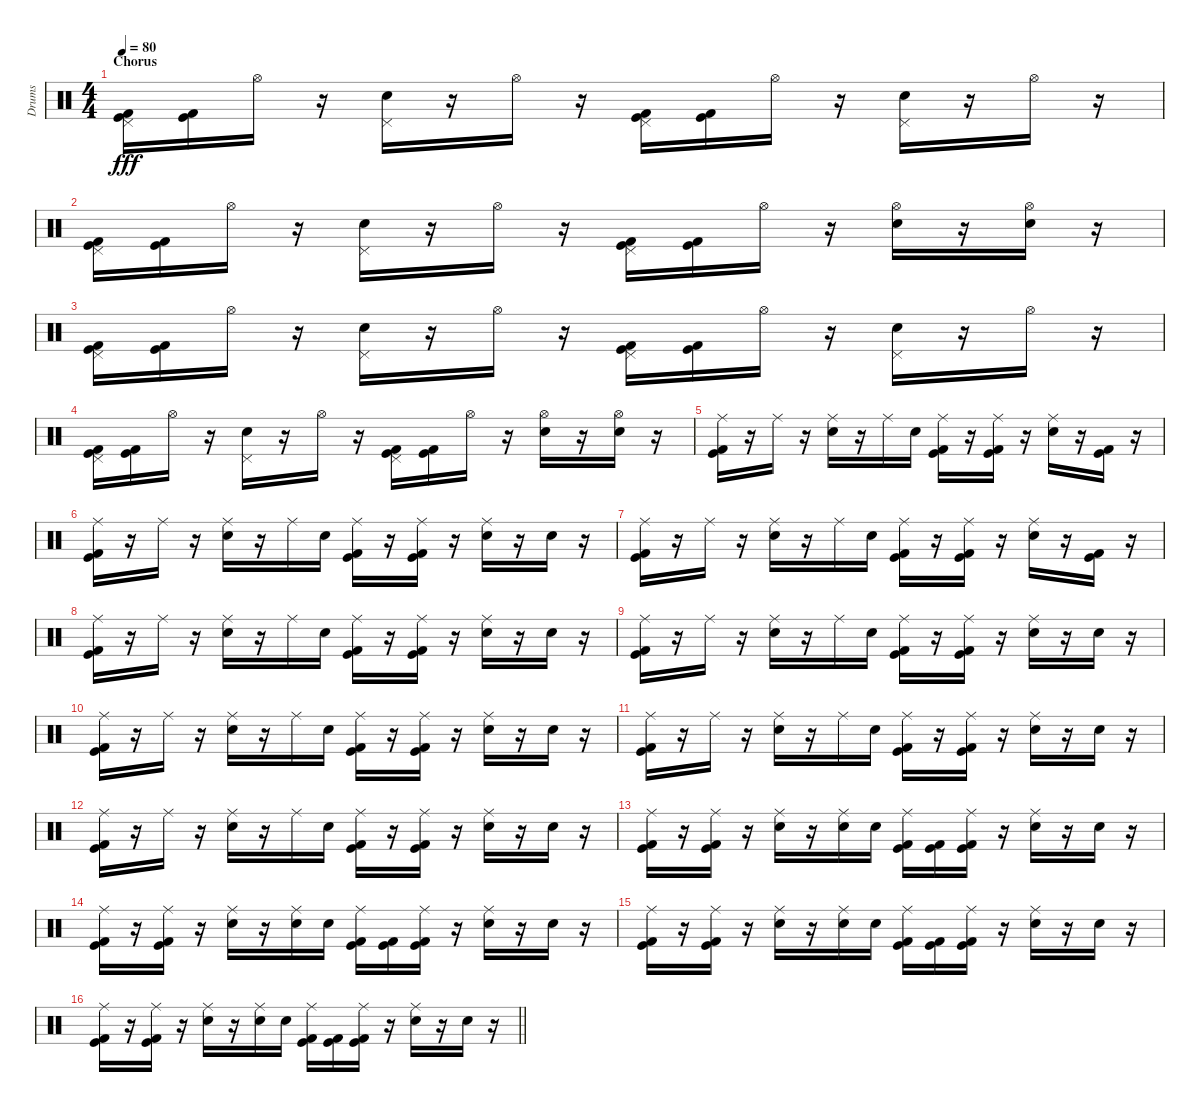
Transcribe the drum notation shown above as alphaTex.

\track ("Drums" "Drums") {instrument percussion}
\staff {score}
\articulation defaults
\ts (4 4)
\section ("" "Chorus")
\tempo 80
\clef neutral
\ks c
("Pedal Hi-Hat (hit)" "Kick (hit)" "Kick (hit) 2").16{dy fff} ("Kick (hit)" "Kick (hit) 2").16 "Hi-Hat (open)".16 r.16 ("Pedal Hi-Hat (hit)" "Snare (hit) 2").16 r.16 "Hi-Hat (open)".16 r.16 ("Pedal Hi-Hat (hit)" "Kick (hit)" "Kick (hit) 2").16 ("Kick (hit)" "Kick (hit) 2").16 "Hi-Hat (open)".16 r.16 ("Pedal Hi-Hat (hit)" "Snare (hit) 2").16 r.16 "Hi-Hat (open)".16 r.16 |
("Pedal Hi-Hat (hit)" "Kick (hit)" "Kick (hit) 2").16 ("Kick (hit)" "Kick (hit) 2").16 "Hi-Hat (open)".16 r.16 ("Pedal Hi-Hat (hit)" "Snare (hit) 2").16 r.16 "Hi-Hat (open)".16 r.16 ("Pedal Hi-Hat (hit)" "Kick (hit)" "Kick (hit) 2").16 ("Kick (hit)" "Kick (hit) 2").16 "Hi-Hat (open)".16 r.16 ("Hi-Hat (open)" "Snare (hit) 2").16 r.16 ("Hi-Hat (open)" "Snare (hit) 2").16 r.16 |
("Pedal Hi-Hat (hit)" "Kick (hit)" "Kick (hit) 2").16 ("Kick (hit)" "Kick (hit) 2").16 "Hi-Hat (open)".16 r.16 ("Pedal Hi-Hat (hit)" "Snare (hit) 2").16 r.16 "Hi-Hat (open)".16 r.16 ("Pedal Hi-Hat (hit)" "Kick (hit)" "Kick (hit) 2").16 ("Kick (hit)" "Kick (hit) 2").16 "Hi-Hat (open)".16 r.16 ("Pedal Hi-Hat (hit)" "Snare (hit) 2").16 r.16 "Hi-Hat (open)".16 r.16 |
("Pedal Hi-Hat (hit)" "Kick (hit)" "Kick (hit) 2").16 ("Kick (hit)" "Kick (hit) 2").16 "Hi-Hat (open)".16 r.16 ("Pedal Hi-Hat (hit)" "Snare (hit) 2").16 r.16 "Hi-Hat (open)".16 r.16 ("Pedal Hi-Hat (hit)" "Kick (hit)" "Kick (hit) 2").16 ("Kick (hit)" "Kick (hit) 2").16 "Hi-Hat (open)".16 r.16 ("Hi-Hat (open)" "Snare (hit) 2").16 r.16 ("Hi-Hat (open)" "Snare (hit) 2").16 r.16 |
("Ride (middle)" "Kick (hit)" "Kick (hit) 2").16 r.16 "Ride (middle)".16 r.16 ("Ride (middle)" "Snare (hit) 2").16 r.16 "Ride (middle)".16 "Snare (hit) 2".16 ("Ride (middle)" "Kick (hit)" "Kick (hit) 2").16 r.16 ("Ride (middle)" "Kick (hit)" "Kick (hit) 2").16 r.16 ("Ride (middle)" "Snare (hit) 2").16 r.16 ("Kick (hit)" "Kick (hit) 2").16 r.16 |
("Ride (middle)" "Kick (hit)" "Kick (hit) 2").16 r.16 "Ride (middle)".16 r.16 ("Ride (middle)" "Snare (hit) 2").16 r.16 "Ride (middle)".16 "Snare (hit) 2".16 ("Ride (middle)" "Kick (hit)" "Kick (hit) 2").16 r.16 ("Ride (middle)" "Kick (hit)" "Kick (hit) 2").16 r.16 ("Ride (middle)" "Snare (hit) 2").16 r.16 "Snare (hit) 2".16 r.16 |
("Ride (middle)" "Kick (hit)" "Kick (hit) 2").16 r.16 "Ride (middle)".16 r.16 ("Ride (middle)" "Snare (hit) 2").16 r.16 "Ride (middle)".16 "Snare (hit) 2".16 ("Ride (middle)" "Kick (hit)" "Kick (hit) 2").16 r.16 ("Ride (middle)" "Kick (hit)" "Kick (hit) 2").16 r.16 ("Ride (middle)" "Snare (hit) 2").16 r.16 ("Kick (hit)" "Kick (hit) 2").16 r.16 |
("Ride (middle)" "Kick (hit)" "Kick (hit) 2").16 r.16 "Ride (middle)".16 r.16 ("Ride (middle)" "Snare (hit) 2").16 r.16 "Ride (middle)".16 "Snare (hit) 2".16 ("Ride (middle)" "Kick (hit)" "Kick (hit) 2").16 r.16 ("Ride (middle)" "Kick (hit)" "Kick (hit) 2").16 r.16 ("Ride (middle)" "Snare (hit) 2").16 r.16 "Snare (hit) 2".16 r.16 |
("Ride (middle)" "Kick (hit)" "Kick (hit) 2").16 r.16 "Ride (middle)".16 r.16 ("Ride (middle)" "Snare (hit) 2").16 r.16 "Ride (middle)".16 "Snare (hit) 2".16 ("Ride (middle)" "Kick (hit)" "Kick (hit) 2").16 r.16 ("Ride (middle)" "Kick (hit)" "Kick (hit) 2").16 r.16 ("Ride (middle)" "Snare (hit) 2").16 r.16 "Snare (hit) 2".16 r.16 |
("Ride (middle)" "Kick (hit)" "Kick (hit) 2").16 r.16 "Ride (middle)".16 r.16 ("Ride (middle)" "Snare (hit) 2").16 r.16 "Ride (middle)".16 "Snare (hit) 2".16 ("Ride (middle)" "Kick (hit)" "Kick (hit) 2").16 r.16 ("Ride (middle)" "Kick (hit)" "Kick (hit) 2").16 r.16 ("Ride (middle)" "Snare (hit) 2").16 r.16 "Snare (hit) 2".16 r.16 |
("Ride (middle)" "Kick (hit)" "Kick (hit) 2").16 r.16 "Ride (middle)".16 r.16 ("Ride (middle)" "Snare (hit) 2").16 r.16 "Ride (middle)".16 "Snare (hit) 2".16 ("Ride (middle)" "Kick (hit)" "Kick (hit) 2").16 r.16 ("Ride (middle)" "Kick (hit)" "Kick (hit) 2").16 r.16 ("Ride (middle)" "Snare (hit) 2").16 r.16 "Snare (hit) 2".16 r.16 |
("Ride (middle)" "Kick (hit)" "Kick (hit) 2").16 r.16 "Ride (middle)".16 r.16 ("Ride (middle)" "Snare (hit) 2").16 r.16 "Ride (middle)".16 "Snare (hit) 2".16 ("Ride (middle)" "Kick (hit)" "Kick (hit) 2").16 r.16 ("Ride (middle)" "Kick (hit)" "Kick (hit) 2").16 r.16 ("Ride (middle)" "Snare (hit) 2").16 r.16 "Snare (hit) 2".16 r.16 |
("Ride (middle)" "Kick (hit)" "Kick (hit) 2").16 r.16 ("Ride (middle)" "Kick (hit)" "Kick (hit) 2").16 r.16 ("Ride (middle)" "Snare (hit) 2").16 r.16 ("Ride (middle)" "Snare (hit) 2").16 "Snare (hit) 2".16 ("Ride (middle)" "Kick (hit)" "Kick (hit) 2").16 ("Kick (hit)" "Kick (hit) 2").16 ("Ride (middle)" "Kick (hit)" "Kick (hit) 2").16 r.16 ("Ride (middle)" "Snare (hit) 2").16 r.16 "Snare (hit) 2".16 r.16 |
("Ride (middle)" "Kick (hit)" "Kick (hit) 2").16 r.16 ("Ride (middle)" "Kick (hit)" "Kick (hit) 2").16 r.16 ("Ride (middle)" "Snare (hit) 2").16 r.16 ("Ride (middle)" "Snare (hit) 2").16 "Snare (hit) 2".16 ("Ride (middle)" "Kick (hit)" "Kick (hit) 2").16 ("Kick (hit)" "Kick (hit) 2").16 ("Ride (middle)" "Kick (hit)" "Kick (hit) 2").16 r.16 ("Ride (middle)" "Snare (hit) 2").16 r.16 "Snare (hit) 2".16 r.16 |
("Ride (middle)" "Kick (hit)" "Kick (hit) 2").16 r.16 ("Ride (middle)" "Kick (hit)" "Kick (hit) 2").16 r.16 ("Ride (middle)" "Snare (hit) 2").16 r.16 ("Ride (middle)" "Snare (hit) 2").16 "Snare (hit) 2".16 ("Ride (middle)" "Kick (hit)" "Kick (hit) 2").16 ("Kick (hit)" "Kick (hit) 2").16 ("Ride (middle)" "Kick (hit)" "Kick (hit) 2").16 r.16 ("Ride (middle)" "Snare (hit) 2").16 r.16 "Snare (hit) 2".16 r.16 |
\barLineRight lightlight
("Ride (middle)" "Kick (hit)" "Kick (hit) 2").16 r.16 ("Ride (middle)" "Kick (hit)" "Kick (hit) 2").16 r.16 ("Ride (middle)" "Snare (hit) 2").16 r.16 ("Ride (middle)" "Snare (hit) 2").16 "Snare (hit) 2".16 ("Ride (middle)" "Kick (hit)" "Kick (hit) 2").16 ("Kick (hit)" "Kick (hit) 2").16 ("Ride (middle)" "Kick (hit)" "Kick (hit) 2").16 r.16 ("Ride (middle)" "Snare (hit) 2").16 r.16 "Snare (hit) 2".16 r.16
